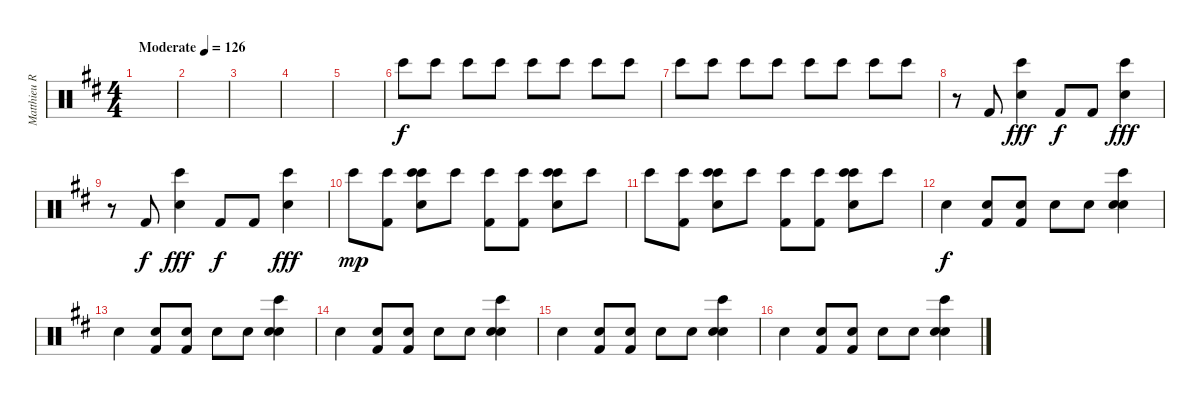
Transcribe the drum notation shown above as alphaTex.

\track ("Matthieu Rabatté (batterie)" "Matthieu R") {instrument percussion}
\staff {score}
\articulation defaults
\ts (4 4)
\tempo (126 "Moderate")
\clef neutral
\ks d
|
|
|
|
|
"Bongo High (hit)".8 "Bongo High (hit)".8 "Bongo High (hit)".8 "Bongo High (hit)".8 "Bongo High (hit)".8 "Bongo High (hit)".8 "Bongo High (hit)".8 "Bongo High (hit)".8 |
"Bongo High (hit)".8 "Bongo High (hit)".8 "Bongo High (hit)".8 "Bongo High (hit)".8 "Bongo High (hit)".8 "Bongo High (hit)".8 "Bongo High (hit)".8 "Bongo High (hit)".8 |
r.8 "Kick (hit) 2".8{dy f} ("Bongo High (hit)" "Hand Clap (hit)").4{dy fff} "Kick (hit) 2".8{dy f} "Kick (hit) 2".8 ("Bongo High (hit)" "Hand Clap (hit)").4{dy fff} |
r.8 "Kick (hit) 2".8{dy f} ("Bongo High (hit)" "Hand Clap (hit)").4{dy fff} "Kick (hit) 2".8{dy f} "Kick (hit) 2".8 ("Bongo High (hit)" "Hand Clap (hit)").4{dy fff} |
"Bongo High (hit)".8{dy mp} ("Kick (hit) 2" "Bongo High (hit)").8 ("Bongo High (hit)" "Hand Clap (hit)" "Bongo High (hit)").8 "Bongo High (hit)".8 ("Kick (hit) 2" "Bongo High (hit)").8 ("Kick (hit) 2" "Bongo High (hit)").8 ("Bongo High (hit)" "Hand Clap (hit)" "Bongo High (hit)").8 "Bongo High (hit)".8 |
"Bongo High (hit)".8 ("Kick (hit) 2" "Bongo High (hit)").8 ("Bongo High (hit)" "Hand Clap (hit)" "Bongo High (hit)").8 "Bongo High (hit)".8 ("Kick (hit) 2" "Bongo High (hit)").8 ("Kick (hit) 2" "Bongo High (hit)").8 ("Bongo High (hit)" "Hand Clap (hit)" "Bongo High (hit)").8 "Bongo High (hit)".8 |
"Snare (hit) 2".4{dy f volume 16} ("Kick (hit) 2" "Electric Snare (hit)").8 ("Kick (hit) 2" "Electric Snare (hit)").8 "Snare (hit) 2".8 "Snare (hit) 2".8 ("Bongo High (hit)" "Electric Snare (hit)" "Hand Clap (hit)").4 |
"Snare (hit) 2".4 ("Kick (hit) 2" "Electric Snare (hit)").8 ("Kick (hit) 2" "Electric Snare (hit)").8 "Snare (hit) 2".8 "Snare (hit) 2".8 ("Bongo High (hit)" "Electric Snare (hit)" "Hand Clap (hit)").4 |
"Snare (hit) 2".4 ("Kick (hit) 2" "Electric Snare (hit)").8 ("Kick (hit) 2" "Electric Snare (hit)").8 "Snare (hit) 2".8 "Snare (hit) 2".8 ("Bongo High (hit)" "Electric Snare (hit)" "Hand Clap (hit)").4 |
"Snare (hit) 2".4 ("Kick (hit) 2" "Electric Snare (hit)").8 ("Kick (hit) 2" "Electric Snare (hit)").8 "Snare (hit) 2".8 "Snare (hit) 2".8 ("Bongo High (hit)" "Electric Snare (hit)" "Hand Clap (hit)").4 |
"Snare (hit) 2".4 ("Kick (hit) 2" "Electric Snare (hit)").8 ("Kick (hit) 2" "Electric Snare (hit)").8 "Snare (hit) 2".8 "Snare (hit) 2".8 ("Bongo High (hit)" "Electric Snare (hit)" "Hand Clap (hit)").4
